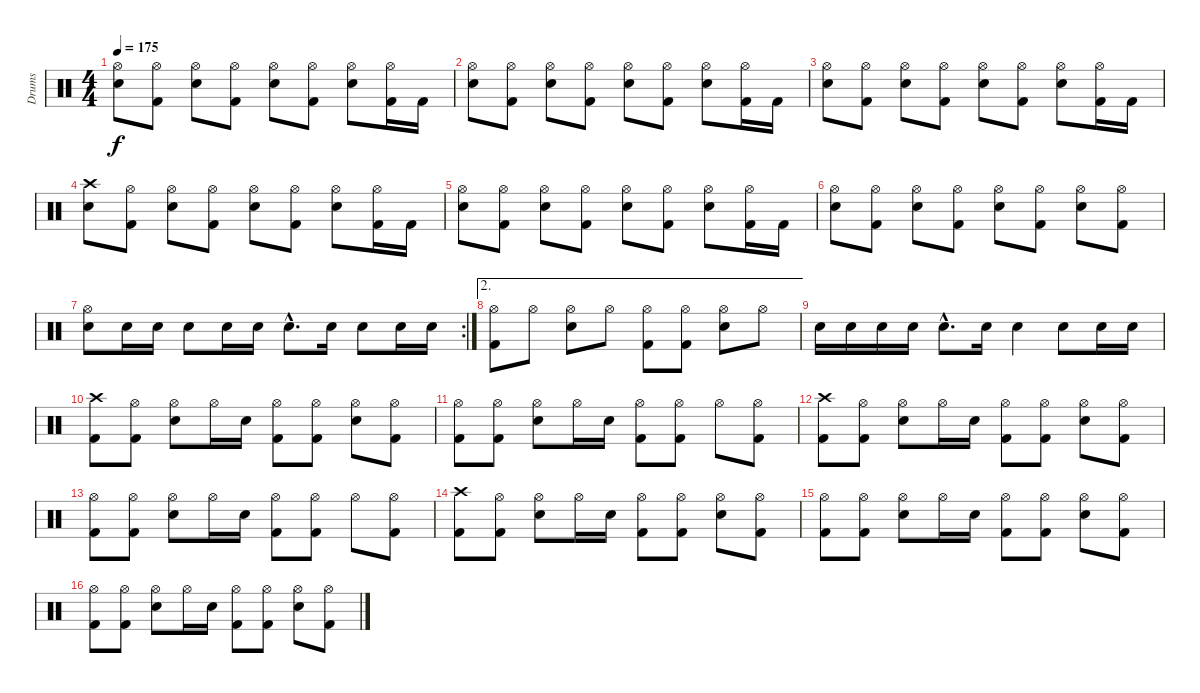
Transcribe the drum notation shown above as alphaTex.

\track ("Drums" "Drums") {instrument percussion}
\staff {score}
\articulation defaults
\ts (4 4)
\tempo 175
\clef neutral
\ks c
("Hi-Hat (open)" "Snare (hit) 2").8{dy f} ("Hi-Hat (open)" "Kick (hit) 2").8 ("Hi-Hat (open)" "Snare (hit) 2").8 ("Hi-Hat (open)" "Kick (hit) 2").8 ("Hi-Hat (open)" "Snare (hit) 2").8 ("Hi-Hat (open)" "Kick (hit) 2").8 ("Hi-Hat (open)" "Snare (hit) 2").8 ("Hi-Hat (open)" "Kick (hit) 2").16 "Kick (hit) 2".16 |
("Hi-Hat (open)" "Snare (hit) 2").8 ("Hi-Hat (open)" "Kick (hit) 2").8 ("Hi-Hat (open)" "Snare (hit) 2").8 ("Hi-Hat (open)" "Kick (hit) 2").8 ("Hi-Hat (open)" "Snare (hit) 2").8 ("Hi-Hat (open)" "Kick (hit) 2").8 ("Hi-Hat (open)" "Snare (hit) 2").8 ("Hi-Hat (open)" "Kick (hit) 2").16 "Kick (hit) 2".16 |
("Hi-Hat (open)" "Snare (hit) 2").8 ("Hi-Hat (open)" "Kick (hit) 2").8 ("Hi-Hat (open)" "Snare (hit) 2").8 ("Hi-Hat (open)" "Kick (hit) 2").8 ("Hi-Hat (open)" "Snare (hit) 2").8 ("Hi-Hat (open)" "Kick (hit) 2").8 ("Hi-Hat (open)" "Snare (hit) 2").8 ("Hi-Hat (open)" "Kick (hit) 2").16 "Kick (hit) 2".16 |
("Crash high (hit)" "Snare (hit) 2").8 ("Hi-Hat (open)" "Kick (hit) 2").8 ("Hi-Hat (open)" "Snare (hit) 2").8 ("Hi-Hat (open)" "Kick (hit) 2").8 ("Hi-Hat (open)" "Snare (hit) 2").8 ("Hi-Hat (open)" "Kick (hit) 2").8 ("Hi-Hat (open)" "Snare (hit) 2").8 ("Hi-Hat (open)" "Kick (hit) 2").16 "Kick (hit) 2".16 |
("Hi-Hat (open)" "Snare (hit) 2").8 ("Hi-Hat (open)" "Kick (hit) 2").8 ("Hi-Hat (open)" "Snare (hit) 2").8 ("Hi-Hat (open)" "Kick (hit) 2").8 ("Hi-Hat (open)" "Snare (hit) 2").8 ("Hi-Hat (open)" "Kick (hit) 2").8 ("Hi-Hat (open)" "Snare (hit) 2").8 ("Hi-Hat (open)" "Kick (hit) 2").16 "Kick (hit) 2".16 |
("Hi-Hat (open)" "Snare (hit) 2").8 ("Hi-Hat (open)" "Kick (hit) 2").8 ("Hi-Hat (open)" "Snare (hit) 2").8 ("Hi-Hat (open)" "Kick (hit) 2").8 ("Hi-Hat (open)" "Snare (hit) 2").8 ("Hi-Hat (open)" "Kick (hit) 2").8 ("Hi-Hat (open)" "Snare (hit) 2").8 ("Hi-Hat (open)" "Kick (hit) 2").8 |
\rc 2
("Hi-Hat (open)" "Snare (hit) 2").8 "Snare (hit) 2".16 "Snare (hit) 2".16 "Snare (hit) 2".8 "Snare (hit) 2".16 "Snare (hit) 2".16 "Snare (hit) 2"{hac}.8{d} "Snare (hit) 2".16 "Snare (hit) 2".8 "Snare (hit) 2".16 "Snare (hit) 2".16 |
\ae 2
("Hi-Hat (open)" "Kick (hit) 2").8 "Hi-Hat (open)".8 ("Hi-Hat (open)" "Snare (hit) 2").8 "Hi-Hat (open)".8 ("Hi-Hat (open)" "Kick (hit) 2").8 ("Hi-Hat (open)" "Kick (hit) 2").8 ("Hi-Hat (open)" "Snare (hit) 2").8 "Hi-Hat (open)".8 |
"Snare (hit) 2".16 "Snare (hit) 2".16 "Snare (hit) 2".16 "Snare (hit) 2".16 "Snare (hit) 2"{hac}.8{d} "Snare (hit) 2".16 "Snare (hit) 2".4 "Snare (hit) 2".8 "Snare (hit) 2".16 "Snare (hit) 2".16 |
("Crash high (hit)" "Kick (hit) 2").8 ("Hi-Hat (open)" "Kick (hit) 2").8 ("Hi-Hat (open)" "Snare (hit) 2").8 "Hi-Hat (open)".16 "Snare (hit) 2".16 ("Hi-Hat (open)" "Kick (hit) 2").8 ("Hi-Hat (open)" "Kick (hit) 2").8 ("Hi-Hat (open)" "Snare (hit) 2").8 ("Hi-Hat (open)" "Kick (hit) 2").8 |
("Hi-Hat (open)" "Kick (hit) 2").8 ("Hi-Hat (open)" "Kick (hit) 2").8 ("Hi-Hat (open)" "Snare (hit) 2").8 "Hi-Hat (open)".16 "Snare (hit) 2".16 ("Hi-Hat (open)" "Kick (hit) 2").8 ("Hi-Hat (open)" "Kick (hit) 2").8 "Hi-Hat (open)".8 ("Hi-Hat (open)" "Kick (hit) 2").8 |
("Crash high (hit)" "Kick (hit) 2").8 ("Hi-Hat (open)" "Kick (hit) 2").8 ("Hi-Hat (open)" "Snare (hit) 2").8 "Hi-Hat (open)".16 "Snare (hit) 2".16 ("Hi-Hat (open)" "Kick (hit) 2").8 ("Hi-Hat (open)" "Kick (hit) 2").8 ("Hi-Hat (open)" "Snare (hit) 2").8 ("Hi-Hat (open)" "Kick (hit) 2").8 |
("Hi-Hat (open)" "Kick (hit) 2").8 ("Hi-Hat (open)" "Kick (hit) 2").8 ("Hi-Hat (open)" "Snare (hit) 2").8 "Hi-Hat (open)".16 "Snare (hit) 2".16 ("Hi-Hat (open)" "Kick (hit) 2").8 ("Hi-Hat (open)" "Kick (hit) 2").8 "Hi-Hat (open)".8 ("Hi-Hat (open)" "Kick (hit) 2").8 |
("Crash high (hit)" "Kick (hit) 2").8 ("Hi-Hat (open)" "Kick (hit) 2").8 ("Hi-Hat (open)" "Snare (hit) 2").8 "Hi-Hat (open)".16 "Snare (hit) 2".16 ("Hi-Hat (open)" "Kick (hit) 2").8 ("Hi-Hat (open)" "Kick (hit) 2").8 ("Hi-Hat (open)" "Snare (hit) 2").8 ("Hi-Hat (open)" "Kick (hit) 2").8 |
("Hi-Hat (open)" "Kick (hit) 2").8 ("Hi-Hat (open)" "Kick (hit) 2").8 ("Hi-Hat (open)" "Snare (hit) 2").8 "Hi-Hat (open)".16 "Snare (hit) 2".16 ("Hi-Hat (open)" "Kick (hit) 2").8 ("Hi-Hat (open)" "Kick (hit) 2").8 ("Hi-Hat (open)" "Snare (hit) 2").8 ("Hi-Hat (open)" "Kick (hit) 2").8 |
("Hi-Hat (open)" "Kick (hit) 2").8 ("Hi-Hat (open)" "Kick (hit) 2").8 ("Hi-Hat (open)" "Snare (hit) 2").8 "Hi-Hat (open)".16 "Snare (hit) 2".16 ("Hi-Hat (open)" "Kick (hit) 2").8 ("Hi-Hat (open)" "Kick (hit) 2").8 ("Hi-Hat (open)" "Snare (hit) 2").8 ("Hi-Hat (open)" "Kick (hit) 2").8
